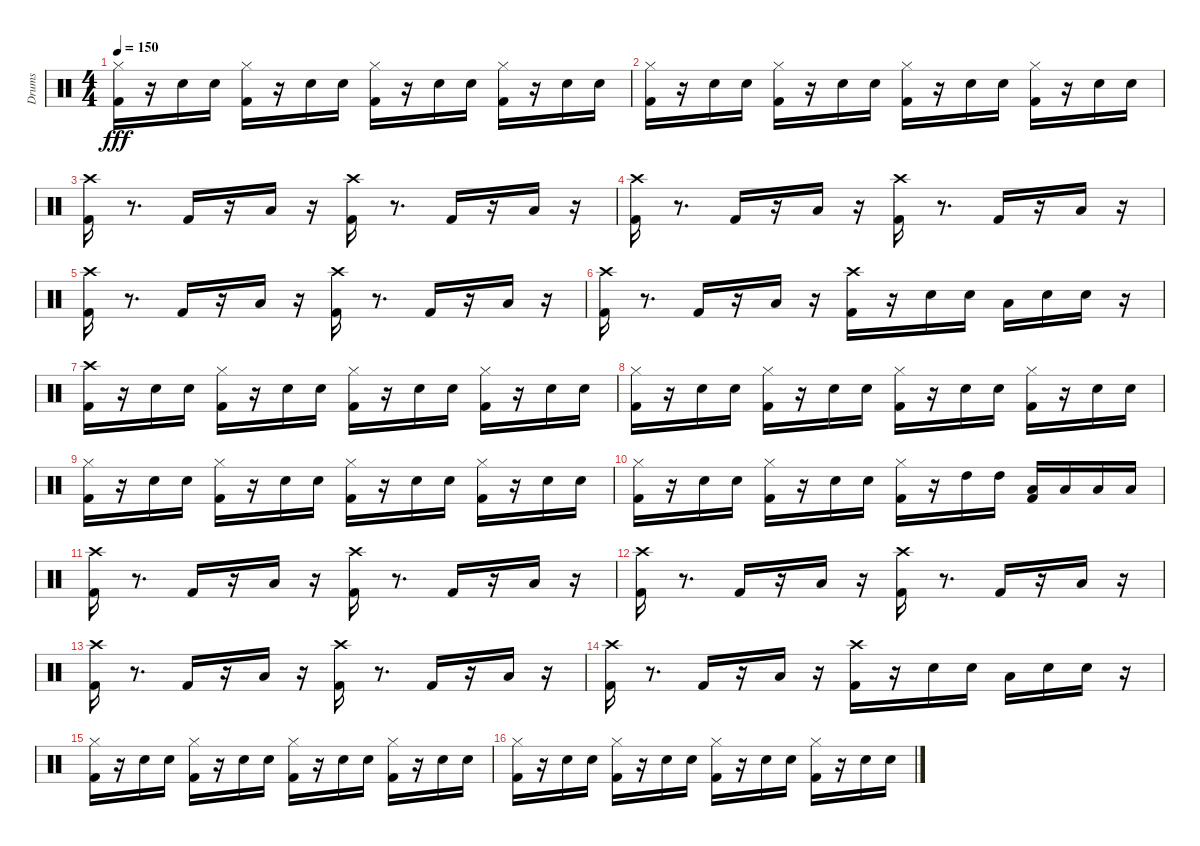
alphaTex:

\track ("Drums" "Drums") {instrument percussion}
\staff {score}
\articulation defaults
\ts (4 4)
\tempo 150
\clef neutral
\ks c
("Hi-Hat (closed)" "Kick (hit) 2").16{dy fff} r.16 "Snare (hit) 2".16 "Snare (hit) 2".16 ("Kick (hit) 2" "Hi-Hat (closed)").16 r.16 "Snare (hit) 2".16 "Snare (hit) 2".16 ("Kick (hit) 2" "Hi-Hat (closed)").16 r.16 "Snare (hit) 2".16 "Snare (hit) 2".16 ("Hi-Hat (closed)" "Kick (hit) 2").16 r.16 "Snare (hit) 2".16 "Snare (hit) 2".16 |
("Kick (hit) 2" "Hi-Hat (closed)").16 r.16 "Snare (hit) 2".16 "Snare (hit) 2".16 ("Kick (hit) 2" "Hi-Hat (closed)").16 r.16 "Snare (hit) 2".16 "Snare (hit) 2".16 ("Hi-Hat (closed)" "Kick (hit) 2").16 r.16 "Snare (hit) 2".16 "Snare (hit) 2".16 ("Kick (hit) 2" "Hi-Hat (closed)").16 r.16 "Snare (hit) 2".16 "Snare (hit) 2".16 |
("Kick (hit) 2" "Crash high (hit)").16 r.8{d} "Kick (hit) 2".16 r.16 "Low Floor Tom (hit)".16 r.16 ("Kick (hit) 2" "Crash high (hit)").16 r.8{d} "Kick (hit) 2".16 r.16 "Low Floor Tom (hit)".16 r.16 |
("Crash high (hit)" "Kick (hit) 2").16 r.8{d} "Kick (hit) 2".16 r.16 "Low Floor Tom (hit)".16 r.16 ("Crash high (hit)" "Kick (hit) 2").16 r.8{d} "Kick (hit) 2".16 r.16 "Low Floor Tom (hit)".16 r.16 |
("Crash high (hit)" "Kick (hit) 2").16 r.8{d} "Kick (hit) 2".16 r.16 "Low Floor Tom (hit)".16 r.16 ("Crash high (hit)" "Kick (hit) 2").16 r.8{d} "Kick (hit) 2".16 r.16 "Low Floor Tom (hit)".16 r.16 |
("Crash high (hit)" "Kick (hit) 2").16 r.8{d} "Kick (hit) 2".16 r.16 "Low Floor Tom (hit)".16 r.16 ("Crash high (hit)" "Kick (hit) 2").16 r.16 "Snare (hit) 2".16 "Snare (hit) 2".16 "Low Tom (hit)".16 "Snare (hit) 2".16 "Snare (hit) 2".16 r.16 |
("Crash high (hit)" "Kick (hit) 2").16 r.16 "Snare (hit) 2".16 "Snare (hit) 2".16 ("Hi-Hat (closed)" "Kick (hit) 2").16 r.16 "Snare (hit) 2".16 "Snare (hit) 2".16 ("Kick (hit) 2" "Hi-Hat (closed)").16 r.16 "Snare (hit) 2".16 "Snare (hit) 2".16 ("Hi-Hat (closed)" "Kick (hit) 2").16 r.16 "Snare (hit) 2".16 "Snare (hit) 2".16 |
("Hi-Hat (closed)" "Kick (hit) 2").16 r.16 "Snare (hit) 2".16 "Snare (hit) 2".16 ("Hi-Hat (closed)" "Kick (hit) 2").16 r.16 "Snare (hit) 2".16 "Snare (hit) 2".16 ("Hi-Hat (closed)" "Kick (hit) 2").16 r.16 "Snare (hit) 2".16 "Snare (hit) 2".16 ("Kick (hit) 2" "Hi-Hat (closed)").16 r.16 "Snare (hit) 2".16 "Snare (hit) 2".16 |
("Kick (hit) 2" "Hi-Hat (closed)").16 r.16 "Snare (hit) 2".16 "Snare (hit) 2".16 ("Hi-Hat (closed)" "Kick (hit) 2").16 r.16 "Snare (hit) 2".16 "Snare (hit) 2".16 ("Kick (hit) 2" "Hi-Hat (closed)").16 r.16 "Snare (hit) 2".16 "Snare (hit) 2".16 ("Kick (hit) 2" "Hi-Hat (closed)").16 r.16 "Snare (hit) 2".16 "Snare (hit) 2".16 |
("Hi-Hat (closed)" "Kick (hit) 2").16 r.16 "Snare (hit) 2".16 "Snare (hit) 2".16 ("Kick (hit) 2" "Hi-Hat (closed)").16 r.16 "Snare (hit) 2".16 "Snare (hit) 2".16 ("Kick (hit) 2" "Hi-Hat (closed)").16 r.16 "High Tom (hit)".16 "High Tom (hit)".16 ("Kick (hit) 2" "Low Tom (hit)").16 "Low Tom (hit)".16 "Low Floor Tom (hit)".16 "Low Floor Tom (hit)".16 |
("Kick (hit) 2" "Crash high (hit)").16 r.8{d} "Kick (hit) 2".16 r.16 "Low Floor Tom (hit)".16 r.16 ("Crash high (hit)" "Kick (hit) 2").16 r.8{d} "Kick (hit) 2".16 r.16 "Low Floor Tom (hit)".16 r.16 |
("Kick (hit) 2" "Crash high (hit)").16 r.8{d} "Kick (hit) 2".16 r.16 "Low Floor Tom (hit)".16 r.16 ("Kick (hit) 2" "Crash high (hit)").16 r.8{d} "Kick (hit) 2".16 r.16 "Low Floor Tom (hit)".16 r.16 |
("Crash high (hit)" "Kick (hit) 2").16 r.8{d} "Kick (hit) 2".16 r.16 "Low Floor Tom (hit)".16 r.16 ("Crash high (hit)" "Kick (hit) 2").16 r.8{d} "Kick (hit) 2".16 r.16 "Low Floor Tom (hit)".16 r.16 |
("Kick (hit) 2" "Crash high (hit)").16 r.8{d} "Kick (hit) 2".16 r.16 "Low Floor Tom (hit)".16 r.16 ("Crash high (hit)" "Kick (hit) 2").16 r.16 "Snare (hit) 2".16 "Snare (hit) 2".16 "Low Tom (hit)".16 "Snare (hit) 2".16 "Snare (hit) 2".16 r.16 |
("Kick (hit) 2" "Hi-Hat (closed)").16 r.16 "Snare (hit) 2".16 "Snare (hit) 2".16 ("Hi-Hat (closed)" "Kick (hit) 2").16 r.16 "Snare (hit) 2".16 "Snare (hit) 2".16 ("Hi-Hat (closed)" "Kick (hit) 2").16 r.16 "Snare (hit) 2".16 "Snare (hit) 2".16 ("Kick (hit) 2" "Hi-Hat (closed)").16 r.16 "Snare (hit) 2".16 "Snare (hit) 2".16 |
("Hi-Hat (closed)" "Kick (hit) 2").16 r.16 "Snare (hit) 2".16 "Snare (hit) 2".16 ("Kick (hit) 2" "Hi-Hat (closed)").16 r.16 "Snare (hit) 2".16 "Snare (hit) 2".16 ("Kick (hit) 2" "Hi-Hat (closed)").16 r.16 "Snare (hit) 2".16 "Snare (hit) 2".16 ("Kick (hit) 2" "Hi-Hat (closed)").16 r.16 "Snare (hit) 2".16 "Snare (hit) 2".16
